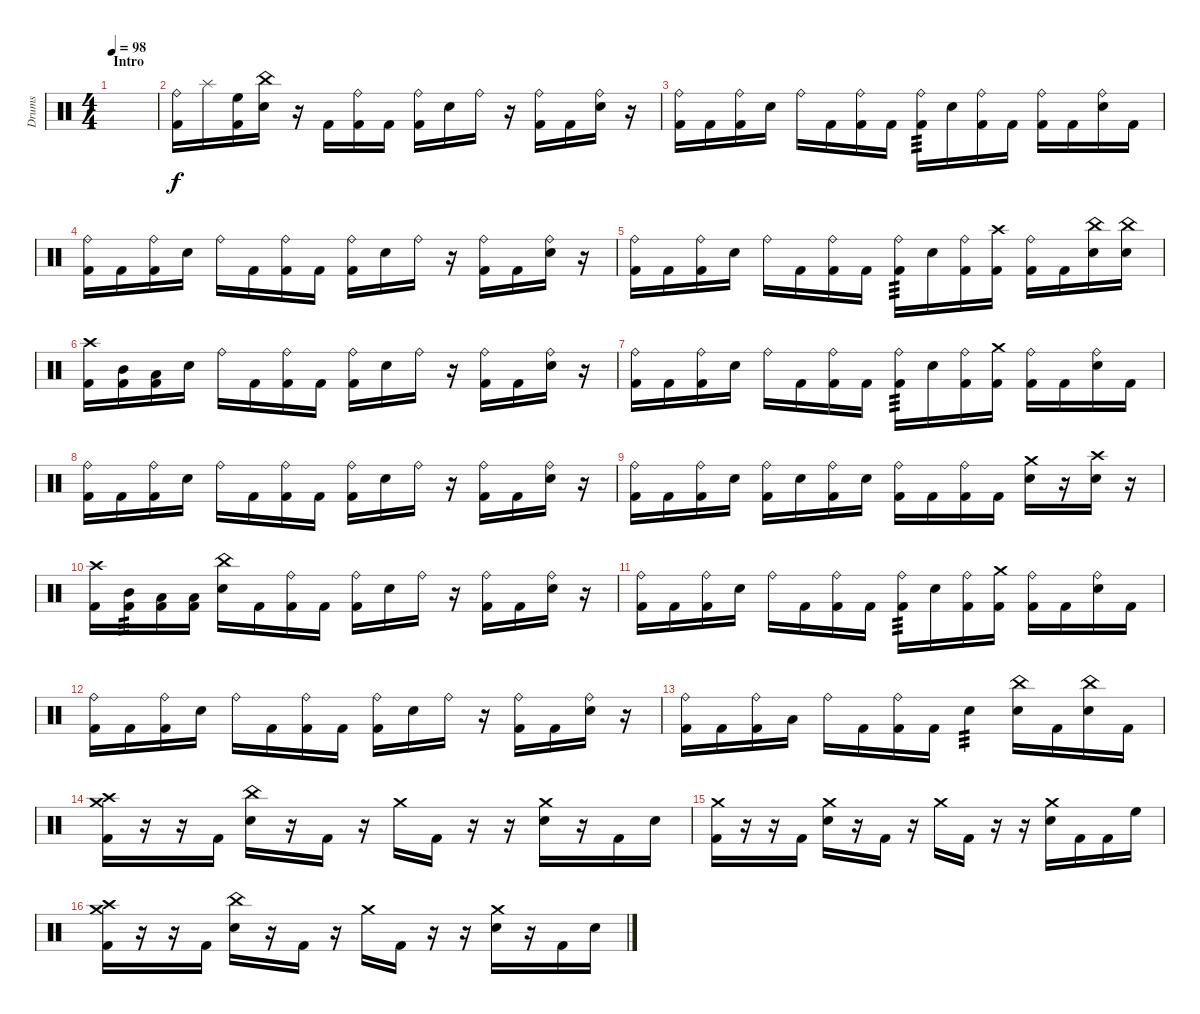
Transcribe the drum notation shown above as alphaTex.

\track ("Drums" "Drums") {instrument percussion}
\staff {score}
\articulation defaults
\ts (4 4)
\section ("" "Intro")
\tempo 98
\clef neutral
\ks c
|
("Ride (bell)" "Kick (hit) 2").16 "Splash (hit)".16 ("High Floor Tom (hit)" "Kick (hit) 2").16 ("China (hit)" "Electric Snare (hit)").16 r.16 "Kick (hit) 2".16 ("Ride (bell)" "Kick (hit) 2").16 "Kick (hit) 2".16 ("Ride (bell)" "Kick (hit) 2").16 "Electric Snare (hit)".16 "Ride (bell)".16 r.16 ("Ride (bell)" "Kick (hit) 2").16 "Kick (hit) 2".16 ("Ride (bell)" "Electric Snare (hit)").16 r.16 |
("Ride (bell)" "Kick (hit) 2").16 "Kick (hit) 2".16 ("Ride (bell)" "Kick (hit) 2").16 "Electric Snare (hit)".16 "Ride (bell)".16 "Kick (hit) 2".16 ("Ride (bell)" "Kick (hit) 2").16 "Kick (hit) 2".16 ("Ride (bell)" "Kick (hit) 2").16{tp 3} "Electric Snare (hit)".16 ("Ride (bell)" "Kick (hit) 2").16 "Kick (hit) 2".16 ("Ride (bell)" "Kick (hit) 2").16 "Kick (hit) 2".16 ("Ride (bell)" "Electric Snare (hit)").16 "Kick (hit) 2".16 |
("Ride (bell)" "Kick (hit) 2").16 "Kick (hit) 2".16 ("Ride (bell)" "Kick (hit) 2").16 "Electric Snare (hit)".16 "Ride (bell)".16 "Kick (hit) 2".16 ("Ride (bell)" "Kick (hit) 2").16 "Kick (hit) 2".16 ("Ride (bell)" "Kick (hit) 2").16 "Electric Snare (hit)".16 "Ride (bell)".16 r.16 ("Ride (bell)" "Kick (hit) 2").16 "Kick (hit) 2".16 ("Ride (bell)" "Electric Snare (hit)").16 r.16 |
("Ride (bell)" "Kick (hit) 2").16 "Kick (hit) 2".16 ("Ride (bell)" "Kick (hit) 2").16 "Electric Snare (hit)".16 "Ride (bell)".16 "Kick (hit) 2".16 ("Ride (bell)" "Kick (hit) 2").16 "Kick (hit) 2".16 ("Ride (bell)" "Kick (hit) 2").16{tp 3} "Electric Snare (hit)".16 ("Ride (bell)" "Kick (hit) 2").16 ("Crash high (hit)" "Kick (hit) 2").16 ("Ride (bell)" "Kick (hit) 2").16 "Kick (hit) 2".16 ("China (hit)" "Electric Snare (hit)").16 ("China (hit)" "Electric Snare (hit)").16 |
("Crash high (hit)" "Kick (hit) 2").16 ("Mid Tom (hit)" "Kick (hit) 2").16 ("Low Tom (hit)" "Kick (hit) 2").16 "Electric Snare (hit)".16 "Ride (bell)".16 "Kick (hit) 2".16 ("Ride (bell)" "Kick (hit) 2").16 "Kick (hit) 2".16 ("Ride (bell)" "Kick (hit) 2").16 "Electric Snare (hit)".16 "Ride (bell)".16 r.16 ("Ride (bell)" "Kick (hit) 2").16 "Kick (hit) 2".16 ("Ride (bell)" "Electric Snare (hit)").16 r.16 |
("Ride (bell)" "Kick (hit) 2").16 "Kick (hit) 2".16 ("Ride (bell)" "Kick (hit) 2").16 "Electric Snare (hit)".16 "Ride (bell)".16 "Kick (hit) 2".16 ("Ride (bell)" "Kick (hit) 2").16 "Kick (hit) 2".16 ("Ride (bell)" "Kick (hit) 2").16{tp 3} "Electric Snare (hit)".16 ("Ride (bell)" "Kick (hit) 2").16 ("Crash medium (hit)" "Kick (hit) 2").16 ("Ride (bell)" "Kick (hit) 2").16 "Kick (hit) 2".16 ("Ride (bell)" "Electric Snare (hit)").16 "Kick (hit) 2".16 |
("Ride (bell)" "Kick (hit) 2").16 "Kick (hit) 2".16 ("Ride (bell)" "Kick (hit) 2").16 "Electric Snare (hit)".16 "Ride (bell)".16 "Kick (hit) 2".16 ("Ride (bell)" "Kick (hit) 2").16 "Kick (hit) 2".16 ("Ride (bell)" "Kick (hit) 2").16 "Electric Snare (hit)".16 "Ride (bell)".16 r.16 ("Ride (bell)" "Kick (hit) 2").16 "Kick (hit) 2".16 ("Ride (bell)" "Electric Snare (hit)").16 r.16 |
("Ride (bell)" "Kick (hit) 2").16 "Kick (hit) 2".16 ("Ride (bell)" "Kick (hit) 2").16 "Electric Snare (hit)".16 ("Ride (bell)" "Kick (hit) 2").16 "Electric Snare (hit)".16 ("Ride (bell)" "Kick (hit) 2").16 "Electric Snare (hit)".16 ("Ride (bell)" "Kick (hit) 2").16 "Kick (hit) 2".16 ("Ride (bell)" "Kick (hit) 2").16 "Kick (hit) 2".16 ("Crash medium (hit)" "Electric Snare (hit)").16 r.16 ("Crash high (hit)" "Electric Snare (hit)").16 r.16 |
("Crash high (hit)" "Kick (hit) 2").16 ("Mid Tom (hit)" "Kick (hit) 2").16{tp 3} ("Low Tom (hit)" "Kick (hit) 2").16 ("Low Floor Tom (hit)" "Kick (hit) 2").16 ("China (hit)" "Electric Snare (hit)").16 "Kick (hit) 2".16 ("Ride (bell)" "Kick (hit) 2").16 "Kick (hit) 2".16 ("Ride (bell)" "Kick (hit) 2").16 "Electric Snare (hit)".16 "Ride (bell)".16 r.16 ("Ride (bell)" "Kick (hit) 2").16 "Kick (hit) 2".16 ("Ride (bell)" "Electric Snare (hit)").16 r.16 |
("Ride (bell)" "Kick (hit) 2").16 "Kick (hit) 2".16 ("Ride (bell)" "Kick (hit) 2").16 "Electric Snare (hit)".16 "Ride (bell)".16 "Kick (hit) 2".16 ("Ride (bell)" "Kick (hit) 2").16 "Kick (hit) 2".16 ("Ride (bell)" "Kick (hit) 2").16{tp 3} "Electric Snare (hit)".16 ("Ride (bell)" "Kick (hit) 2").16 ("Crash medium (hit)" "Kick (hit) 2").16 ("Ride (bell)" "Kick (hit) 2").16 "Kick (hit) 2".16 ("Ride (bell)" "Electric Snare (hit)").16 "Kick (hit) 2".16 |
("Ride (bell)" "Kick (hit) 2").16 "Kick (hit) 2".16 ("Ride (bell)" "Kick (hit) 2").16 "Electric Snare (hit)".16 "Ride (bell)".16 "Kick (hit) 2".16 ("Ride (bell)" "Kick (hit) 2").16 "Kick (hit) 2".16 ("Ride (bell)" "Kick (hit) 2").16 "Electric Snare (hit)".16 "Ride (bell)".16 r.16 ("Ride (bell)" "Kick (hit) 2").16 "Kick (hit) 2".16 ("Ride (bell)" "Electric Snare (hit)").16 r.16 |
("Ride (bell)" "Kick (hit) 2").16 "Kick (hit) 2".16 ("Ride (bell)" "Kick (hit) 2").16 "Low Tom (hit)".16 "Ride (bell)".16 "Kick (hit) 2".16 ("Ride (bell)" "Kick (hit) 2").16 "Kick (hit) 2".16 "Electric Snare (hit)".4{tp 3} ("China (hit)" "Electric Snare (hit)").16 "Kick (hit) 2".16 ("China (hit)" "Electric Snare (hit)").16 "Kick (hit) 2".16 |
("Crash medium (hit)" "Crash high (hit)" "Kick (hit) 2").16 r.16 r.16 "Kick (hit) 2".16 ("China (hit)" "Electric Snare (hit)").16 r.16 "Kick (hit) 2".16 r.16 "Crash medium (hit)".16 "Kick (hit) 2".16 r.16 r.16 ("Crash medium (hit)" "Electric Snare (hit)").16 r.16 "Kick (hit) 2".16 "Electric Snare (hit)".16 |
("Crash medium (hit)" "Kick (hit) 2").16 r.16 r.16 "Kick (hit) 2".16 ("Crash medium (hit)" "Electric Snare (hit)").16 r.16 "Kick (hit) 2".16 r.16 "Crash medium (hit)".16 "Kick (hit) 2".16 r.16 r.16 ("Crash medium (hit)" "Electric Snare (hit)").16 "Kick (hit) 2".16 "Kick (hit) 2".16 "High Floor Tom (hit)".16 |
("Crash medium (hit)" "Crash high (hit)" "Kick (hit) 2").16 r.16 r.16 "Kick (hit) 2".16 ("China (hit)" "Electric Snare (hit)").16 r.16 "Kick (hit) 2".16 r.16 "Crash medium (hit)".16 "Kick (hit) 2".16 r.16 r.16 ("Crash medium (hit)" "Electric Snare (hit)").16 r.16 "Kick (hit) 2".16 "Electric Snare (hit)".16
